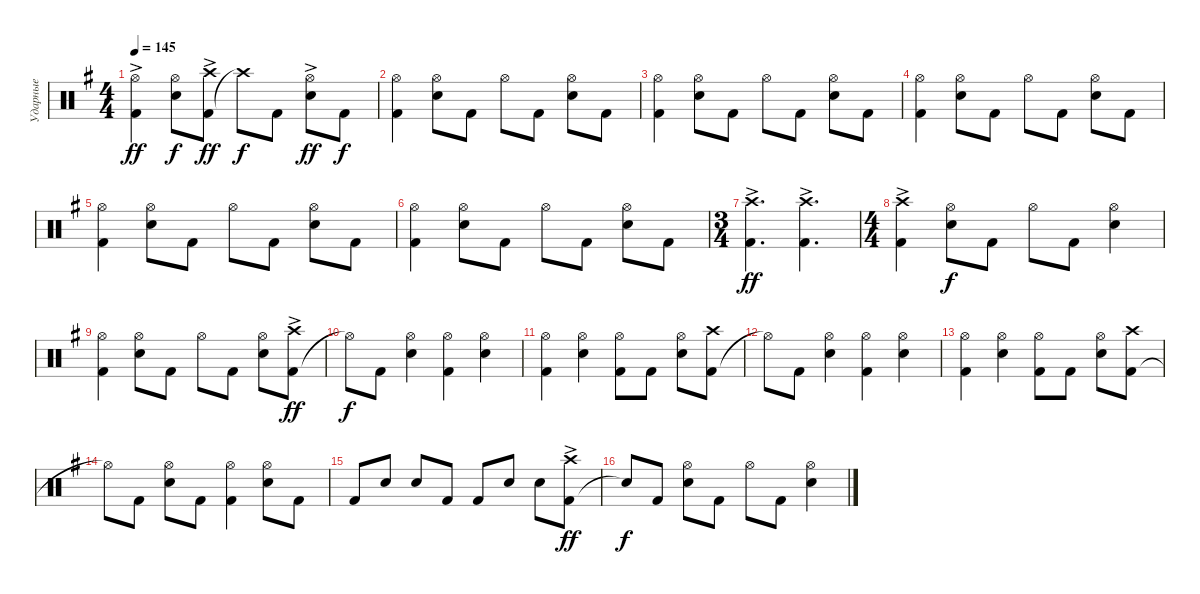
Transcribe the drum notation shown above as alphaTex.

\track ("Ударные" "Ударные") {instrument percussion}
\staff {score}
\articulation defaults
\ts (4 4)
\tempo 145
\clef neutral
\ks g
("Kick (hit) 2" "Hi-Hat (open)"{ac}).4{dy ff} ("Snare (hit) 2" "Hi-Hat (open)").8{dy f} ("Kick (hit) 2" "Crash high (hit)"{ac}).8{dy ff} "Crash high (hit)"{t}.8{dy f} "Kick (hit) 2".8 ("Snare (hit) 2" "Hi-Hat (open)"{ac}).8{dy ff} "Kick (hit) 2".8{dy f} |
("Kick (hit) 2" "Hi-Hat (open)").4 ("Snare (hit) 2" "Hi-Hat (open)").8 "Kick (hit) 2".8 "Hi-Hat (open)".8 "Kick (hit) 2".8 ("Snare (hit) 2" "Hi-Hat (open)").8 "Kick (hit) 2".8 |
("Kick (hit) 2" "Hi-Hat (open)").4 ("Snare (hit) 2" "Hi-Hat (open)").8 "Kick (hit) 2".8 "Hi-Hat (open)".8 "Kick (hit) 2".8 ("Snare (hit) 2" "Hi-Hat (open)").8 "Kick (hit) 2".8 |
("Kick (hit) 2" "Hi-Hat (open)").4 ("Snare (hit) 2" "Hi-Hat (open)").8 "Kick (hit) 2".8 "Hi-Hat (open)".8 "Kick (hit) 2".8 ("Snare (hit) 2" "Hi-Hat (open)").8 "Kick (hit) 2".8 |
("Kick (hit) 2" "Hi-Hat (open)").4 ("Snare (hit) 2" "Hi-Hat (open)").8 "Kick (hit) 2".8 "Hi-Hat (open)".8 "Kick (hit) 2".8 ("Snare (hit) 2" "Hi-Hat (open)").8 "Kick (hit) 2".8 |
("Kick (hit) 2" "Hi-Hat (open)").4 ("Snare (hit) 2" "Hi-Hat (open)").8 "Kick (hit) 2".8 "Hi-Hat (open)".8 "Kick (hit) 2".8 ("Snare (hit) 2" "Hi-Hat (open)").8 "Kick (hit) 2".8 |
\ts (3 4)
("Kick (hit) 2" "Crash high (hit)"{ac}).4{d dy ff} ("Kick (hit) 2" "Crash high (hit)"{ac}).4{d} |
\ts (4 4)
("Kick (hit) 2" "Crash high (hit)"{ac}).4 ("Snare (hit) 2" "Hi-Hat (open)").8{dy f} "Kick (hit) 2".8 "Hi-Hat (open)".8 "Kick (hit) 2".8 ("Snare (hit) 2" "Hi-Hat (open)").4 |
("Kick (hit) 2" "Hi-Hat (open)").4 ("Snare (hit) 2" "Hi-Hat (open)").8 "Kick (hit) 2".8 "Hi-Hat (open)".8 "Kick (hit) 2".8 ("Snare (hit) 2" "Hi-Hat (open)").8 ("Kick (hit) 2" "Crash high (hit)"{ac}).8{dy ff} |
"Hi-Hat (open)"{t}.8{dy f} "Kick (hit) 2".8 ("Snare (hit) 2" "Hi-Hat (open)").4 ("Kick (hit) 2" "Hi-Hat (open)").4 ("Snare (hit) 2" "Hi-Hat (open)").4 |
("Kick (hit) 2" "Hi-Hat (open)").4 ("Snare (hit) 2" "Hi-Hat (open)").4 ("Kick (hit) 2" "Hi-Hat (open)").8 "Kick (hit) 2".8 ("Snare (hit) 2" "Hi-Hat (open)").8 ("Kick (hit) 2" "Crash high (hit)").8 |
"Hi-Hat (open)"{t}.8 "Kick (hit) 2".8 ("Snare (hit) 2" "Hi-Hat (open)").4 ("Kick (hit) 2" "Hi-Hat (open)").4 ("Snare (hit) 2" "Hi-Hat (open)").4 |
("Kick (hit) 2" "Hi-Hat (open)").4 ("Snare (hit) 2" "Hi-Hat (open)").4 ("Kick (hit) 2" "Hi-Hat (open)").8 "Kick (hit) 2".8 ("Snare (hit) 2" "Hi-Hat (open)").8 ("Kick (hit) 2" "Crash high (hit)").8 |
"Hi-Hat (open)"{t}.8 "Kick (hit) 2".8 ("Snare (hit) 2" "Hi-Hat (open)").8 "Kick (hit) 2".8 ("Kick (hit) 2" "Hi-Hat (open)").4 ("Snare (hit) 2" "Hi-Hat (open)").8 "Kick (hit) 2".8 |
"Kick (hit) 2".8 "Snare (hit) 2".8 "Snare (hit) 2".8 "Kick (hit) 2".8 "Kick (hit) 2".8 "Snare (hit) 2".8 "Snare (hit) 2".8 ("Kick (hit) 2" "Crash high (hit)"{ac}).8{dy ff} |
"Snare (hit)"{t}.8{dy f} "Kick (hit) 2".8 ("Snare (hit) 2" "Hi-Hat (open)").8 "Kick (hit) 2".8 "Hi-Hat (open)".8 "Kick (hit) 2".8 ("Snare (hit) 2" "Hi-Hat (open)").4
